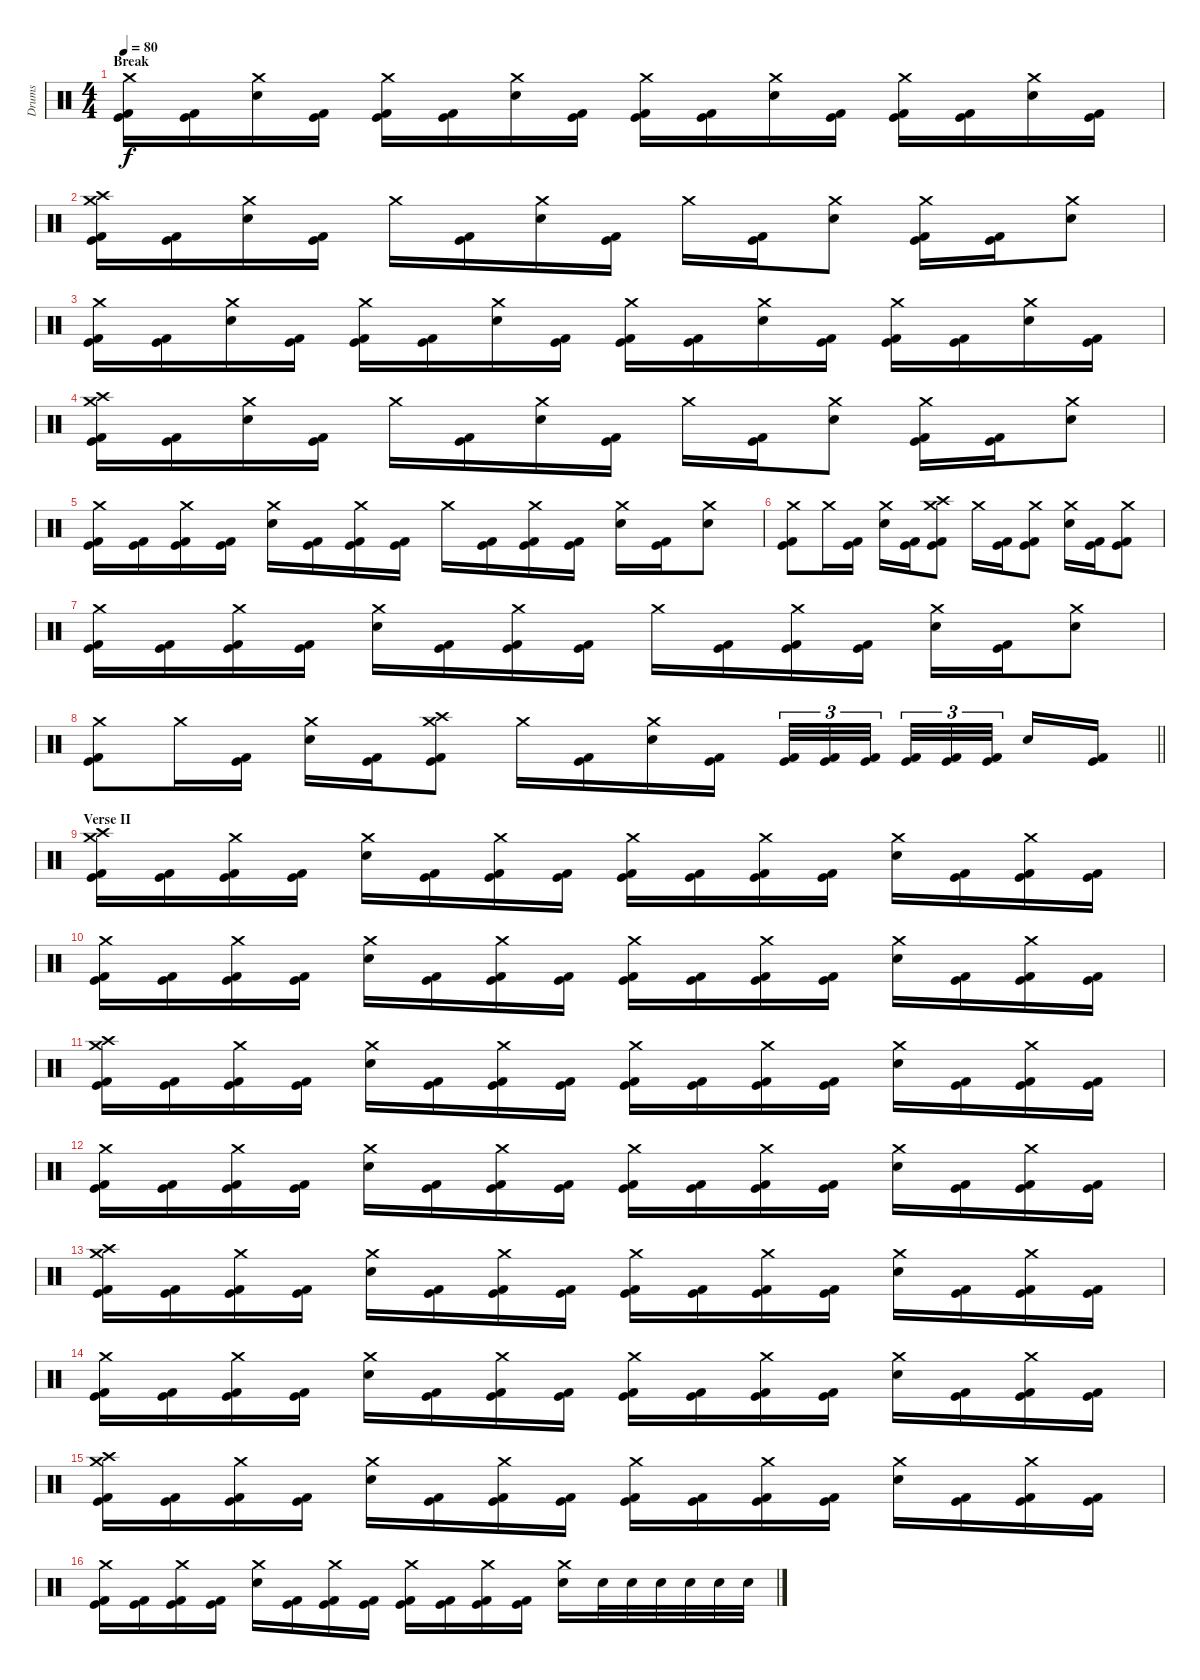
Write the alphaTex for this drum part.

\track ("Drums" "Drums") {instrument percussion}
\staff {score}
\articulation defaults
\ts (4 4)
\section ("" "Break")
\tempo 80
\clef neutral
\ks c
("Crash medium (hit)" "Kick (hit) 2" "Kick (hit)").16{dy f} ("Kick (hit) 2" "Kick (hit)").16 ("Crash medium (hit)" "Electric Snare (hit)").16 ("Kick (hit) 2" "Kick (hit)").16 ("Crash medium (hit)" "Kick (hit) 2" "Kick (hit)").16 ("Kick (hit) 2" "Kick (hit)").16 ("Crash medium (hit)" "Electric Snare (hit)").16 ("Kick (hit) 2" "Kick (hit)").16 ("Crash medium (hit)" "Kick (hit) 2" "Kick (hit)").16 ("Kick (hit) 2" "Kick (hit)").16 ("Crash medium (hit)" "Electric Snare (hit)").16 ("Kick (hit) 2" "Kick (hit)").16 ("Crash medium (hit)" "Kick (hit) 2" "Kick (hit)").16 ("Kick (hit) 2" "Kick (hit)").16 ("Crash medium (hit)" "Electric Snare (hit)").16 ("Kick (hit) 2" "Kick (hit)").16 |
("Crash medium (hit)" "Crash high (hit)" "Kick (hit) 2" "Kick (hit)").16 ("Kick (hit) 2" "Kick (hit)").16 ("Crash medium (hit)" "Electric Snare (hit)").16 ("Kick (hit) 2" "Kick (hit)").16 "Crash medium (hit)".16 ("Kick (hit) 2" "Kick (hit)").16 ("Crash medium (hit)" "Electric Snare (hit)").16 ("Kick (hit) 2" "Kick (hit)").16 "Crash medium (hit)".16 ("Kick (hit) 2" "Kick (hit)").16 ("Crash medium (hit)" "Electric Snare (hit)").8 ("Crash medium (hit)" "Kick (hit) 2" "Kick (hit)").16 ("Kick (hit) 2" "Kick (hit)").16 ("Crash medium (hit)" "Electric Snare (hit)").8 |
("Crash medium (hit)" "Kick (hit) 2" "Kick (hit)").16 ("Kick (hit) 2" "Kick (hit)").16 ("Crash medium (hit)" "Electric Snare (hit)").16 ("Kick (hit) 2" "Kick (hit)").16 ("Crash medium (hit)" "Kick (hit) 2" "Kick (hit)").16 ("Kick (hit) 2" "Kick (hit)").16 ("Crash medium (hit)" "Electric Snare (hit)").16 ("Kick (hit) 2" "Kick (hit)").16 ("Crash medium (hit)" "Kick (hit) 2" "Kick (hit)").16 ("Kick (hit) 2" "Kick (hit)").16 ("Crash medium (hit)" "Electric Snare (hit)").16 ("Kick (hit) 2" "Kick (hit)").16 ("Crash medium (hit)" "Kick (hit) 2" "Kick (hit)").16 ("Kick (hit) 2" "Kick (hit)").16 ("Crash medium (hit)" "Electric Snare (hit)").16 ("Kick (hit) 2" "Kick (hit)").16 |
("Crash medium (hit)" "Crash high (hit)" "Kick (hit) 2" "Kick (hit)").16 ("Kick (hit) 2" "Kick (hit)").16 ("Crash medium (hit)" "Electric Snare (hit)").16 ("Kick (hit) 2" "Kick (hit)").16 "Crash medium (hit)".16 ("Kick (hit) 2" "Kick (hit)").16 ("Crash medium (hit)" "Electric Snare (hit)").16 ("Kick (hit) 2" "Kick (hit)").16 "Crash medium (hit)".16 ("Kick (hit) 2" "Kick (hit)").16 ("Crash medium (hit)" "Electric Snare (hit)").8 ("Crash medium (hit)" "Kick (hit) 2" "Kick (hit)").16 ("Kick (hit) 2" "Kick (hit)").16 ("Crash medium (hit)" "Electric Snare (hit)").8 |
("Crash medium (hit)" "Kick (hit) 2" "Kick (hit)").16 ("Kick (hit) 2" "Kick (hit)").16 ("Crash medium (hit)" "Kick (hit) 2" "Kick (hit)").16 ("Kick (hit) 2" "Kick (hit)").16 ("Crash medium (hit)" "Electric Snare (hit)").16 ("Kick (hit) 2" "Kick (hit)").16 ("Crash medium (hit)" "Kick (hit) 2" "Kick (hit)").16 ("Kick (hit) 2" "Kick (hit)").16 "Crash medium (hit)".16 ("Kick (hit) 2" "Kick (hit)").16 ("Crash medium (hit)" "Kick (hit) 2" "Kick (hit)").16 ("Kick (hit) 2" "Kick (hit)").16 ("Crash medium (hit)" "Electric Snare (hit)").16 ("Kick (hit) 2" "Kick (hit)").16 ("Crash medium (hit)" "Electric Snare (hit)").8 |
("Crash medium (hit)" "Kick (hit) 2" "Kick (hit)").8 "Crash medium (hit)".16 ("Kick (hit) 2" "Kick (hit)").16 ("Crash medium (hit)" "Electric Snare (hit)").16 ("Kick (hit) 2" "Kick (hit)").16 ("Crash medium (hit)" "Crash high (hit)" "Kick (hit) 2" "Kick (hit)").8 "Crash medium (hit)".16 ("Kick (hit) 2" "Kick (hit)").16 ("Crash medium (hit)" "Kick (hit) 2" "Kick (hit)").8 ("Crash medium (hit)" "Electric Snare (hit)").16 ("Kick (hit) 2" "Kick (hit)").16 ("Crash medium (hit)" "Kick (hit) 2" "Kick (hit)").8 |
("Crash medium (hit)" "Kick (hit) 2" "Kick (hit)").16 ("Kick (hit) 2" "Kick (hit)").16 ("Crash medium (hit)" "Kick (hit) 2" "Kick (hit)").16 ("Kick (hit) 2" "Kick (hit)").16 ("Crash medium (hit)" "Electric Snare (hit)").16 ("Kick (hit) 2" "Kick (hit)").16 ("Crash medium (hit)" "Kick (hit) 2" "Kick (hit)").16 ("Kick (hit) 2" "Kick (hit)").16 "Crash medium (hit)".16 ("Kick (hit) 2" "Kick (hit)").16 ("Crash medium (hit)" "Kick (hit) 2" "Kick (hit)").16 ("Kick (hit) 2" "Kick (hit)").16 ("Crash medium (hit)" "Electric Snare (hit)").16 ("Kick (hit) 2" "Kick (hit)").16 ("Crash medium (hit)" "Electric Snare (hit)").8 |
\barLineRight lightlight
("Crash medium (hit)" "Kick (hit) 2" "Kick (hit)").8 "Crash medium (hit)".16 ("Kick (hit) 2" "Kick (hit)").16 ("Crash medium (hit)" "Electric Snare (hit)").16 ("Kick (hit) 2" "Kick (hit)").16 ("Crash medium (hit)" "Crash high (hit)" "Kick (hit) 2" "Kick (hit)").8 "Crash medium (hit)".16 ("Kick (hit) 2" "Kick (hit)").16 ("Crash medium (hit)" "Electric Snare (hit)").16 ("Kick (hit) 2" "Kick (hit)").16 ("Kick (hit) 2" "Kick (hit)").32{tu (3 2)} ("Kick (hit) 2" "Kick (hit)").32{tu (3 2)} ("Kick (hit) 2" "Kick (hit)").32{tu (3 2) beam splitsecondary} ("Kick (hit) 2" "Kick (hit)").32{tu (3 2)} ("Kick (hit) 2" "Kick (hit)").32{tu (3 2)} ("Kick (hit) 2" "Kick (hit)").32{tu (3 2) beam splitsecondary} "Electric Snare (hit)".16 ("Kick (hit) 2" "Kick (hit)").16 |
\section ("" "Verse II")
("Crash medium (hit)" "Crash high (hit)" "Kick (hit) 2" "Kick (hit)").16 ("Kick (hit) 2" "Kick (hit)").16 ("Crash medium (hit)" "Kick (hit) 2" "Kick (hit)").16 ("Kick (hit) 2" "Kick (hit)").16 ("Crash medium (hit)" "Electric Snare (hit)").16 ("Kick (hit) 2" "Kick (hit)").16 ("Crash medium (hit)" "Kick (hit) 2" "Kick (hit)").16 ("Kick (hit) 2" "Kick (hit)").16 ("Crash medium (hit)" "Kick (hit) 2" "Kick (hit)").16 ("Kick (hit) 2" "Kick (hit)").16 ("Crash medium (hit)" "Kick (hit) 2" "Kick (hit)").16 ("Kick (hit) 2" "Kick (hit)").16 ("Crash medium (hit)" "Electric Snare (hit)").16 ("Kick (hit) 2" "Kick (hit)").16 ("Crash medium (hit)" "Kick (hit) 2" "Kick (hit)").16 ("Kick (hit) 2" "Kick (hit)").16 |
("Crash medium (hit)" "Kick (hit) 2" "Kick (hit)").16 ("Kick (hit) 2" "Kick (hit)").16 ("Crash medium (hit)" "Kick (hit) 2" "Kick (hit)").16 ("Kick (hit) 2" "Kick (hit)").16 ("Crash medium (hit)" "Electric Snare (hit)").16 ("Kick (hit) 2" "Kick (hit)").16 ("Crash medium (hit)" "Kick (hit) 2" "Kick (hit)").16 ("Kick (hit) 2" "Kick (hit)").16 ("Crash medium (hit)" "Kick (hit) 2" "Kick (hit)").16 ("Kick (hit) 2" "Kick (hit)").16 ("Crash medium (hit)" "Kick (hit) 2" "Kick (hit)").16 ("Kick (hit) 2" "Kick (hit)").16 ("Crash medium (hit)" "Electric Snare (hit)").16 ("Kick (hit) 2" "Kick (hit)").16 ("Crash medium (hit)" "Kick (hit) 2" "Kick (hit)").16 ("Kick (hit) 2" "Kick (hit)").16 |
("Crash medium (hit)" "Crash high (hit)" "Kick (hit) 2" "Kick (hit)").16 ("Kick (hit) 2" "Kick (hit)").16 ("Crash medium (hit)" "Kick (hit) 2" "Kick (hit)").16 ("Kick (hit) 2" "Kick (hit)").16 ("Crash medium (hit)" "Electric Snare (hit)").16 ("Kick (hit) 2" "Kick (hit)").16 ("Crash medium (hit)" "Kick (hit) 2" "Kick (hit)").16 ("Kick (hit) 2" "Kick (hit)").16 ("Crash medium (hit)" "Kick (hit) 2" "Kick (hit)").16 ("Kick (hit) 2" "Kick (hit)").16 ("Crash medium (hit)" "Kick (hit) 2" "Kick (hit)").16 ("Kick (hit) 2" "Kick (hit)").16 ("Crash medium (hit)" "Electric Snare (hit)").16 ("Kick (hit) 2" "Kick (hit)").16 ("Crash medium (hit)" "Kick (hit) 2" "Kick (hit)").16 ("Kick (hit) 2" "Kick (hit)").16 |
("Crash medium (hit)" "Kick (hit) 2" "Kick (hit)").16 ("Kick (hit) 2" "Kick (hit)").16 ("Crash medium (hit)" "Kick (hit) 2" "Kick (hit)").16 ("Kick (hit) 2" "Kick (hit)").16 ("Crash medium (hit)" "Electric Snare (hit)").16 ("Kick (hit) 2" "Kick (hit)").16 ("Crash medium (hit)" "Kick (hit) 2" "Kick (hit)").16 ("Kick (hit) 2" "Kick (hit)").16 ("Crash medium (hit)" "Kick (hit) 2" "Kick (hit)").16 ("Kick (hit) 2" "Kick (hit)").16 ("Crash medium (hit)" "Kick (hit) 2" "Kick (hit)").16 ("Kick (hit) 2" "Kick (hit)").16 ("Crash medium (hit)" "Electric Snare (hit)").16 ("Kick (hit) 2" "Kick (hit)").16 ("Crash medium (hit)" "Kick (hit) 2" "Kick (hit)").16 ("Kick (hit) 2" "Kick (hit)").16 |
("Crash medium (hit)" "Crash high (hit)" "Kick (hit) 2" "Kick (hit)").16 ("Kick (hit) 2" "Kick (hit)").16 ("Crash medium (hit)" "Kick (hit) 2" "Kick (hit)").16 ("Kick (hit) 2" "Kick (hit)").16 ("Crash medium (hit)" "Electric Snare (hit)").16 ("Kick (hit) 2" "Kick (hit)").16 ("Crash medium (hit)" "Kick (hit) 2" "Kick (hit)").16 ("Kick (hit) 2" "Kick (hit)").16 ("Crash medium (hit)" "Kick (hit) 2" "Kick (hit)").16 ("Kick (hit) 2" "Kick (hit)").16 ("Crash medium (hit)" "Kick (hit) 2" "Kick (hit)").16 ("Kick (hit) 2" "Kick (hit)").16 ("Crash medium (hit)" "Electric Snare (hit)").16 ("Kick (hit) 2" "Kick (hit)").16 ("Crash medium (hit)" "Kick (hit) 2" "Kick (hit)").16 ("Kick (hit) 2" "Kick (hit)").16 |
("Crash medium (hit)" "Kick (hit) 2" "Kick (hit)").16 ("Kick (hit) 2" "Kick (hit)").16 ("Crash medium (hit)" "Kick (hit) 2" "Kick (hit)").16 ("Kick (hit) 2" "Kick (hit)").16 ("Crash medium (hit)" "Electric Snare (hit)").16 ("Kick (hit) 2" "Kick (hit)").16 ("Crash medium (hit)" "Kick (hit) 2" "Kick (hit)").16 ("Kick (hit) 2" "Kick (hit)").16 ("Crash medium (hit)" "Kick (hit) 2" "Kick (hit)").16 ("Kick (hit) 2" "Kick (hit)").16 ("Crash medium (hit)" "Kick (hit) 2" "Kick (hit)").16 ("Kick (hit) 2" "Kick (hit)").16 ("Crash medium (hit)" "Electric Snare (hit)").16 ("Kick (hit) 2" "Kick (hit)").16 ("Crash medium (hit)" "Kick (hit) 2" "Kick (hit)").16 ("Kick (hit) 2" "Kick (hit)").16 |
("Crash medium (hit)" "Crash high (hit)" "Kick (hit) 2" "Kick (hit)").16 ("Kick (hit) 2" "Kick (hit)").16 ("Crash medium (hit)" "Kick (hit) 2" "Kick (hit)").16 ("Kick (hit) 2" "Kick (hit)").16 ("Crash medium (hit)" "Electric Snare (hit)").16 ("Kick (hit) 2" "Kick (hit)").16 ("Crash medium (hit)" "Kick (hit) 2" "Kick (hit)").16 ("Kick (hit) 2" "Kick (hit)").16 ("Crash medium (hit)" "Kick (hit) 2" "Kick (hit)").16 ("Kick (hit) 2" "Kick (hit)").16 ("Crash medium (hit)" "Kick (hit) 2" "Kick (hit)").16 ("Kick (hit) 2" "Kick (hit)").16 ("Crash medium (hit)" "Electric Snare (hit)").16 ("Kick (hit) 2" "Kick (hit)").16 ("Crash medium (hit)" "Kick (hit) 2" "Kick (hit)").16 ("Kick (hit) 2" "Kick (hit)").16 |
("Crash medium (hit)" "Kick (hit) 2" "Kick (hit)").16 ("Kick (hit) 2" "Kick (hit)").16 ("Crash medium (hit)" "Kick (hit) 2" "Kick (hit)").16 ("Kick (hit) 2" "Kick (hit)").16 ("Crash medium (hit)" "Electric Snare (hit)").16 ("Kick (hit) 2" "Kick (hit)").16 ("Crash medium (hit)" "Kick (hit) 2" "Kick (hit)").16 ("Kick (hit) 2" "Kick (hit)").16 ("Crash medium (hit)" "Kick (hit) 2" "Kick (hit)").16 ("Kick (hit) 2" "Kick (hit)").16 ("Crash medium (hit)" "Kick (hit) 2" "Kick (hit)").16 ("Kick (hit) 2" "Kick (hit)").16 ("Crash medium (hit)" "Electric Snare (hit)").16 "Electric Snare (hit)".32 "Electric Snare (hit)".32 "Electric Snare (hit)".32 "Electric Snare (hit)".32 "Electric Snare (hit)".32 "Electric Snare (hit)".32
